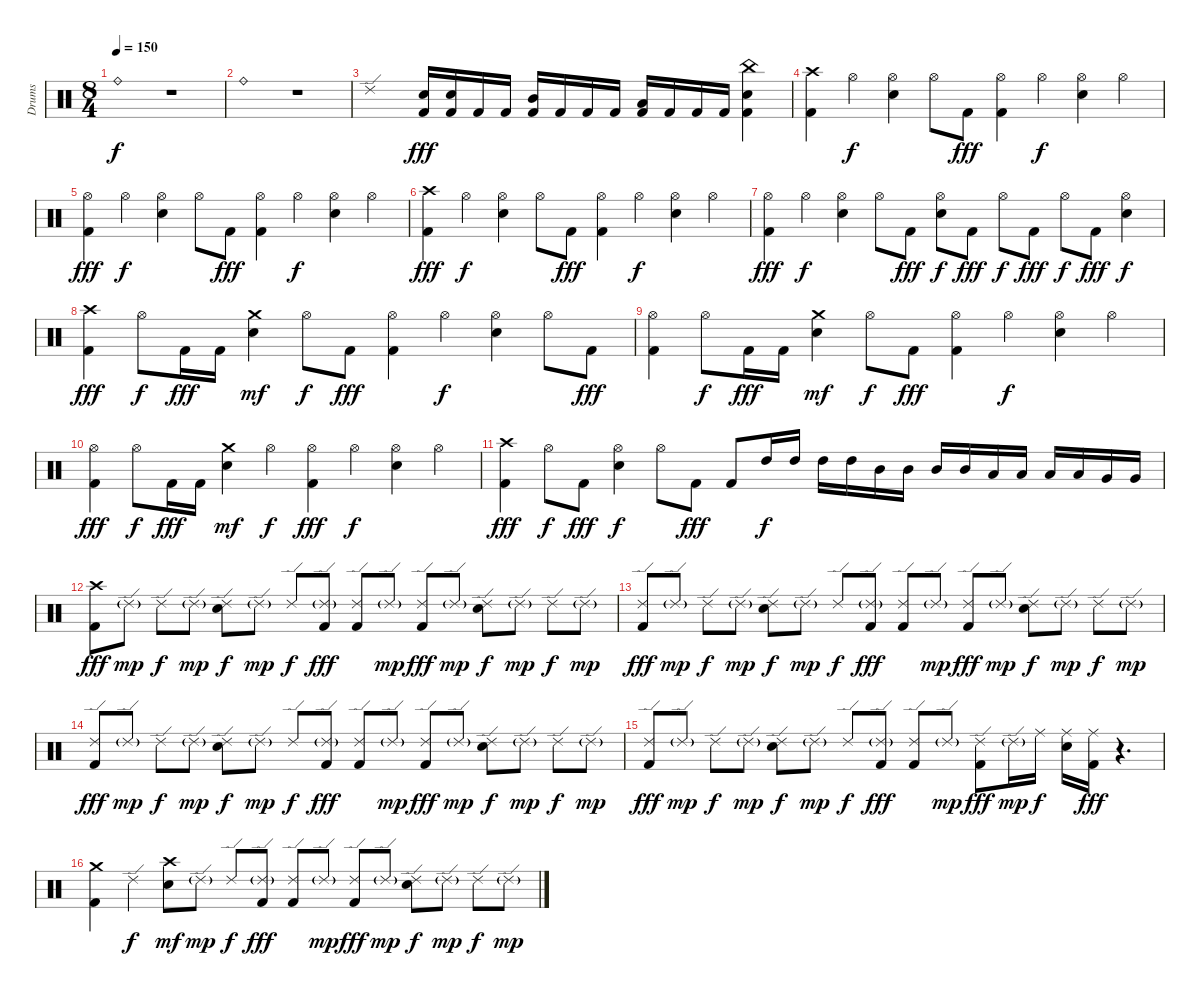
\track ("Drums" "Drums") {instrument percussion}
\staff {score}
\articulation defaults
\ts (8 4)
\tempo 150
\clef neutral
\ks c "Ride (bell)".1{dy f}
r.1 |
"Ride (bell)".1 r.1 |
"Ride (edge) 2".1 ("Snare (hit) 2" "Kick (hit) 2").16{dy fff} ("Snare (hit) 2" "Kick (hit) 2").16 "Kick (hit) 2".16 "Kick (hit) 2".16 ("Mid Tom (hit)" "Kick (hit) 2").16 "Kick (hit) 2".16 "Kick (hit) 2".16 "Kick (hit) 2".16 ("Low Tom (hit)" "Kick (hit) 2").16 "Kick (hit) 2".16 "Kick (hit) 2".16 "Kick (hit) 2".16 ("China (hit)" "Snare (hit) 2" "Kick (hit) 2").4 |
("Crash high (hit)" "Kick (hit) 2").4 "Hi-Hat (open)".4{dy f} ("Hi-Hat (open)" "Snare (hit) 2").4 "Hi-Hat (open)".8 "Kick (hit) 2".8{dy fff} ("Hi-Hat (open)" "Kick (hit) 2").4 "Hi-Hat (open)".4{dy f} ("Hi-Hat (open)" "Snare (hit) 2").4 "Hi-Hat (open)".4 |
("Hi-Hat (open)" "Kick (hit) 2").4{dy fff} "Hi-Hat (open)".4{dy f} ("Hi-Hat (open)" "Snare (hit) 2").4 "Hi-Hat (open)".8 "Kick (hit) 2".8{dy fff} ("Hi-Hat (open)" "Kick (hit) 2").4 "Hi-Hat (open)".4{dy f} ("Hi-Hat (open)" "Snare (hit) 2").4 "Hi-Hat (open)".4 |
("Crash high (hit)" "Kick (hit) 2").4{dy fff} "Hi-Hat (open)".4{dy f} ("Hi-Hat (open)" "Snare (hit) 2").4 "Hi-Hat (open)".8 "Kick (hit) 2".8{dy fff} ("Hi-Hat (open)" "Kick (hit) 2").4 "Hi-Hat (open)".4{dy f} ("Hi-Hat (open)" "Snare (hit) 2").4 "Hi-Hat (open)".4 |
("Hi-Hat (open)" "Kick (hit) 2").4{dy fff} "Hi-Hat (open)".4{dy f} ("Hi-Hat (open)" "Snare (hit) 2").4 "Hi-Hat (open)".8 "Kick (hit) 2".8{dy fff} ("Hi-Hat (open)" "Snare (hit) 2").8{dy f} "Kick (hit) 2".8{dy fff} "Hi-Hat (open)".8{dy f} "Kick (hit) 2".8{dy fff} "Hi-Hat (open)".8{dy f} "Kick (hit) 2".8{dy fff} ("Hi-Hat (open)" "Snare (hit) 2").4{dy f} |
("Crash high (hit)" "Kick (hit) 2").4{dy fff} "Hi-Hat (open)".8{dy f} "Kick (hit) 2".16{dy fff} "Kick (hit) 2".16 ("Crash medium (hit)" "Snare (hit) 2").4{dy mf} "Hi-Hat (open)".8{dy f} "Kick (hit) 2".8{dy fff} ("Hi-Hat (open)" "Kick (hit) 2").4 "Hi-Hat (open)".4{dy f} ("Hi-Hat (open)" "Snare (hit) 2").4 "Hi-Hat (open)".8 "Kick (hit) 2".8{dy fff} |
("Hi-Hat (open)" "Kick (hit) 2").4 "Hi-Hat (open)".8{dy f} "Kick (hit) 2".16{dy fff} "Kick (hit) 2".16 ("Crash medium (hit)" "Snare (hit) 2").4{dy mf} "Hi-Hat (open)".8{dy f} "Kick (hit) 2".8{dy fff} ("Hi-Hat (open)" "Kick (hit) 2").4 "Hi-Hat (open)".4{dy f} ("Hi-Hat (open)" "Snare (hit) 2").4 "Hi-Hat (open)".4 |
("Hi-Hat (open)" "Kick (hit) 2").4{dy fff} "Hi-Hat (open)".8{dy f} "Kick (hit) 2".16{dy fff} "Kick (hit) 2".16 ("Crash medium (hit)" "Snare (hit) 2").4{dy mf} "Hi-Hat (open)".4{dy f} ("Hi-Hat (open)" "Kick (hit) 2").4{dy fff} "Hi-Hat (open)".4{dy f} ("Hi-Hat (open)" "Snare (hit) 2").4 "Hi-Hat (open)".4 |
("Crash high (hit)" "Kick (hit) 2").4{dy fff} "Hi-Hat (open)".8{dy f} "Kick (hit) 2".8{dy fff} ("Hi-Hat (open)" "Snare (hit) 2").4{dy f} "Hi-Hat (open)".8 "Kick (hit) 2".8{dy fff} "Kick (hit) 2".8 "High Tom (hit)".16{dy f} "High Tom (hit)".16 "High Tom (hit)".16 "High Tom (hit)".16 "Mid Tom (hit)".16 "Mid Tom (hit)".16 "Mid Tom (hit)".16 "Mid Tom (hit)".16 "Low Tom (hit)".16 "Low Tom (hit)".16 "Low Tom (hit)".16 "Low Tom (hit)".16 "Very Low Tom (hit)".16 "Very Low Tom (hit)".16 |
("Crash high (hit)" "Kick (hit) 2").8{dy fff} "Ride (edge) 2"{g}.8{dy mp} "Ride (edge) 2".8{dy f} "Ride (edge) 2"{g}.8{dy mp} ("Ride (edge) 2" "Snare (hit) 2").8{dy f} "Ride (edge) 2"{g}.8{dy mp} "Ride (edge) 2".8{dy f} ("Ride (edge) 2"{g} "Kick (hit) 2").8{dy fff} ("Ride (edge) 2" "Kick (hit) 2").8 "Ride (edge) 2"{g}.8{dy mp} ("Ride (edge) 2" "Kick (hit) 2").8{dy fff} "Ride (edge) 2"{g}.8{dy mp} ("Ride (edge) 2" "Snare (hit) 2").8{dy f} "Ride (edge) 2"{g}.8{dy mp} "Ride (edge) 2".8{dy f} "Ride (edge) 2"{g}.8{dy mp} |
("Ride (edge) 2" "Kick (hit) 2").8{dy fff} "Ride (edge) 2"{g}.8{dy mp} "Ride (edge) 2".8{dy f} "Ride (edge) 2"{g}.8{dy mp} ("Ride (edge) 2" "Snare (hit) 2").8{dy f} "Ride (edge) 2"{g}.8{dy mp} "Ride (edge) 2".8{dy f} ("Ride (edge) 2"{g} "Kick (hit) 2").8{dy fff} ("Ride (edge) 2" "Kick (hit) 2").8 "Ride (edge) 2"{g}.8{dy mp} ("Ride (edge) 2" "Kick (hit) 2").8{dy fff} "Ride (edge) 2"{g}.8{dy mp} ("Ride (edge) 2" "Snare (hit) 2").8{dy f} "Ride (edge) 2"{g}.8{dy mp} "Ride (edge) 2".8{dy f} "Ride (edge) 2"{g}.8{dy mp} |
("Ride (edge) 2" "Kick (hit) 2").8{dy fff} "Ride (edge) 2"{g}.8{dy mp} "Ride (edge) 2".8{dy f} "Ride (edge) 2"{g}.8{dy mp} ("Ride (edge) 2" "Snare (hit) 2").8{dy f} "Ride (edge) 2"{g}.8{dy mp} "Ride (edge) 2".8{dy f} ("Ride (edge) 2"{g} "Kick (hit) 2").8{dy fff} ("Ride (edge) 2" "Kick (hit) 2").8 "Ride (edge) 2"{g}.8{dy mp} ("Ride (edge) 2" "Kick (hit) 2").8{dy fff} "Ride (edge) 2"{g}.8{dy mp} ("Ride (edge) 2" "Snare (hit) 2").8{dy f} "Ride (edge) 2"{g}.8{dy mp} "Ride (edge) 2".8{dy f} "Ride (edge) 2"{g}.8{dy mp} |
("Ride (edge) 2" "Kick (hit) 2").8{dy fff} "Ride (edge) 2"{g}.8{dy mp} "Ride (edge) 2".8{dy f} "Ride (edge) 2"{g}.8{dy mp} ("Ride (edge) 2" "Snare (hit) 2").8{dy f} "Ride (edge) 2"{g}.8{dy mp} "Ride (edge) 2".8{dy f} ("Ride (edge) 2"{g} "Kick (hit) 2").8{dy fff} ("Ride (edge) 2" "Kick (hit) 2").8 "Ride (edge) 2"{g}.8{dy mp} ("Ride (edge) 2" "Kick (hit) 2").8{dy fff} "Ride (edge) 2"{g}.16{dy mp} "Ride (middle)".16{dy f} ("Ride (middle)" "Snare (hit) 2").16 ("Ride (middle)" "Kick (hit) 2").16{dy fff} r.4{d} |
("Crash medium (hit)" "Kick (hit) 2").4 "Ride (edge) 2".4{dy f} ("Crash high (hit)" "Snare (hit) 2").8{dy mf} "Ride (edge) 2"{g}.8{dy mp} "Ride (edge) 2".8{dy f} ("Ride (edge) 2"{g} "Kick (hit) 2").8{dy fff} ("Ride (edge) 2" "Kick (hit) 2").8 "Ride (edge) 2"{g}.8{dy mp} ("Ride (edge) 2" "Kick (hit) 2").8{dy fff} "Ride (edge) 2"{g}.8{dy mp} ("Ride (edge) 2" "Snare (hit) 2").8{dy f} "Ride (edge) 2"{g}.8{dy mp} "Ride (edge) 2".8{dy f} "Ride (edge) 2"{g}.8{dy mp}
